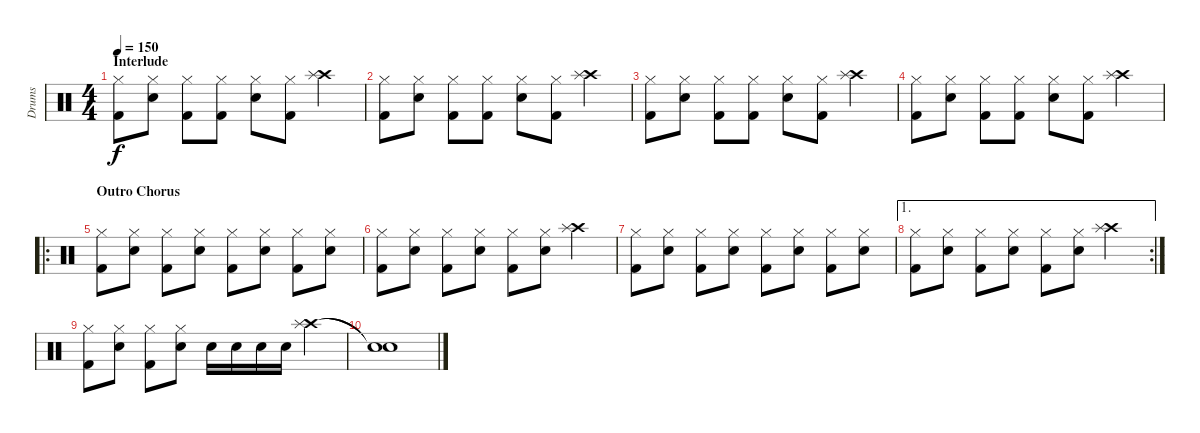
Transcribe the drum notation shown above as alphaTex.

\track ("Drums" "Drums") {instrument percussion}
\staff {score}
\articulation defaults
\ts (4 4)
\section ("" "Interlude")
\tempo 150
\clef neutral
\ks c
("Hi-Hat (closed)" "Kick (hit) 2").8{dy f} ("Hi-Hat (closed)" "Snare (hit) 2").8 ("Hi-Hat (closed)" "Kick (hit) 2").8 ("Hi-Hat (closed)" "Kick (hit) 2").8 ("Hi-Hat (closed)" "Snare (hit) 2").8 ("Hi-Hat (closed)" "Kick (hit) 2").8 ("Crash high (hit)" "Splash (hit)").4 |
("Hi-Hat (closed)" "Kick (hit) 2").8 ("Hi-Hat (closed)" "Snare (hit) 2").8 ("Hi-Hat (closed)" "Kick (hit) 2").8 ("Hi-Hat (closed)" "Kick (hit) 2").8 ("Hi-Hat (closed)" "Snare (hit) 2").8 ("Hi-Hat (closed)" "Kick (hit) 2").8 ("Crash high (hit)" "Splash (hit)").4 |
("Hi-Hat (closed)" "Kick (hit) 2").8 ("Hi-Hat (closed)" "Snare (hit) 2").8 ("Hi-Hat (closed)" "Kick (hit) 2").8 ("Hi-Hat (closed)" "Kick (hit) 2").8 ("Hi-Hat (closed)" "Snare (hit) 2").8 ("Hi-Hat (closed)" "Kick (hit) 2").8 ("Crash high (hit)" "Splash (hit)").4 |
("Hi-Hat (closed)" "Kick (hit) 2").8 ("Hi-Hat (closed)" "Snare (hit) 2").8 ("Hi-Hat (closed)" "Kick (hit) 2").8 ("Hi-Hat (closed)" "Kick (hit) 2").8 ("Hi-Hat (closed)" "Snare (hit) 2").8 ("Hi-Hat (closed)" "Kick (hit) 2").8 ("Crash high (hit)" "Splash (hit)").4 |
\ro
\section ("" "Outro Chorus")
("Hi-Hat (closed)" "Kick (hit) 2").8 ("Hi-Hat (closed)" "Snare (hit) 2").8 ("Hi-Hat (closed)" "Kick (hit) 2").8 ("Hi-Hat (closed)" "Snare (hit) 2").8 ("Hi-Hat (closed)" "Kick (hit) 2").8 ("Hi-Hat (closed)" "Snare (hit) 2").8 ("Hi-Hat (closed)" "Kick (hit) 2").8 ("Hi-Hat (closed)" "Snare (hit) 2").8 |
("Hi-Hat (closed)" "Kick (hit) 2").8 ("Hi-Hat (closed)" "Snare (hit) 2").8 ("Hi-Hat (closed)" "Kick (hit) 2").8 ("Hi-Hat (closed)" "Snare (hit) 2").8 ("Hi-Hat (closed)" "Kick (hit) 2").8 ("Hi-Hat (closed)" "Snare (hit) 2").8 ("Crash high (hit)" "Splash (hit)").4 |
("Hi-Hat (closed)" "Kick (hit) 2").8 ("Hi-Hat (closed)" "Snare (hit) 2").8 ("Hi-Hat (closed)" "Kick (hit) 2").8 ("Hi-Hat (closed)" "Snare (hit) 2").8 ("Hi-Hat (closed)" "Kick (hit) 2").8 ("Hi-Hat (closed)" "Snare (hit) 2").8 ("Hi-Hat (closed)" "Kick (hit) 2").8 ("Hi-Hat (closed)" "Snare (hit) 2").8 |
\ae 1
\rc 2
("Hi-Hat (closed)" "Kick (hit) 2").8 ("Hi-Hat (closed)" "Snare (hit) 2").8 ("Hi-Hat (closed)" "Kick (hit) 2").8 ("Hi-Hat (closed)" "Snare (hit) 2").8 ("Hi-Hat (closed)" "Kick (hit) 2").8 ("Hi-Hat (closed)" "Snare (hit) 2").8 ("Crash high (hit)" "Splash (hit)").4 |
("Hi-Hat (closed)" "Kick (hit) 2").8 ("Hi-Hat (closed)" "Snare (hit) 2").8 ("Hi-Hat (closed)" "Kick (hit) 2").8 ("Hi-Hat (closed)" "Snare (hit) 2").8 "Snare (hit) 2".16 "Snare (hit) 2".16 "Snare (hit) 2".16 "Snare (hit) 2".16 ("Crash high (hit)" "Splash (hit)").4 |
("Snare (hit)"{t} "Snare (hit)"{t}).1
